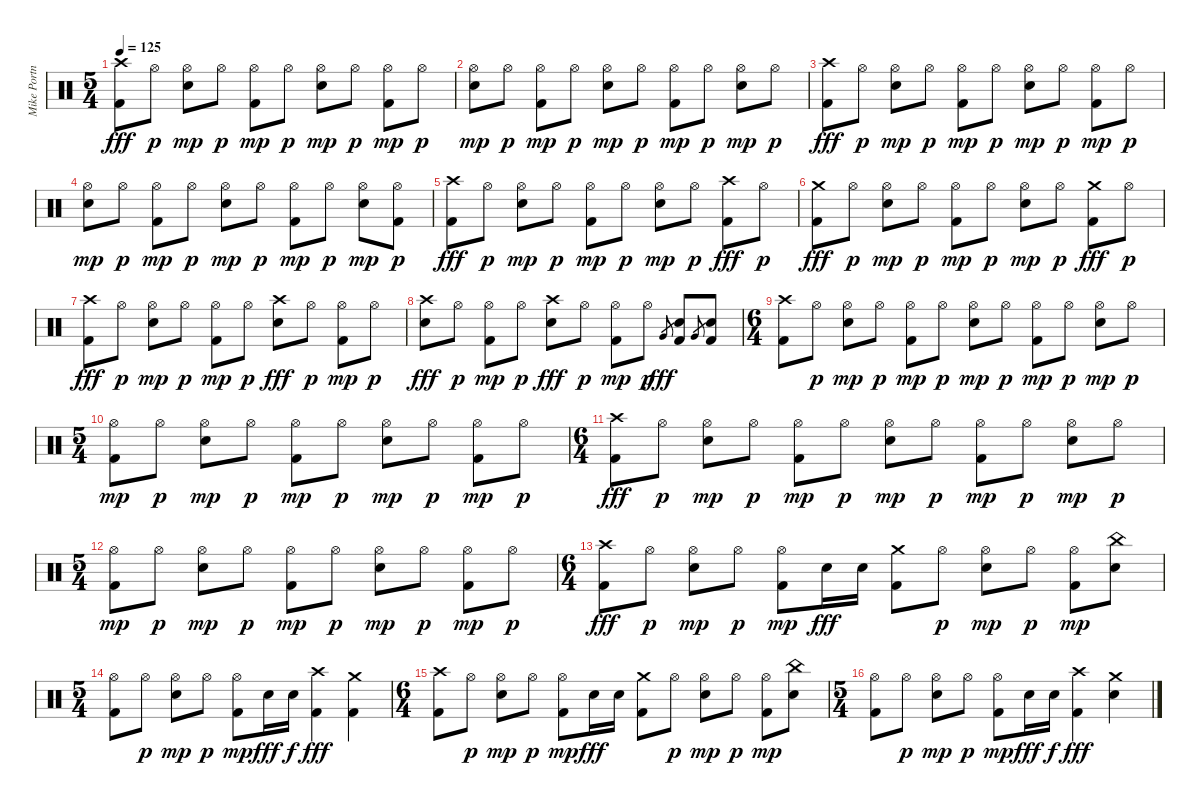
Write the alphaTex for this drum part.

\track ("Mike Portnoy" "Mike Portn") {instrument percussion}
\staff {score}
\articulation defaults
\ts (5 4)
\tempo 125
\clef neutral
\ks c
("Kick (hit) 2" "Crash high (hit)").8{dy fff} "Hi-Hat (open)".8{dy p} ("Electric Snare (hit)" "Hi-Hat (open)").8{dy mp} "Hi-Hat (open)".8{dy p} ("Kick (hit) 2" "Hi-Hat (open)").8{dy mp} "Hi-Hat (open)".8{dy p} ("Electric Snare (hit)" "Hi-Hat (open)").8{dy mp} "Hi-Hat (open)".8{dy p} ("Kick (hit) 2" "Hi-Hat (open)").8{dy mp} "Hi-Hat (open)".8{dy p} |
("Electric Snare (hit)" "Hi-Hat (open)").8{dy mp} "Hi-Hat (open)".8{dy p} ("Kick (hit) 2" "Hi-Hat (open)").8{dy mp} "Hi-Hat (open)".8{dy p} ("Electric Snare (hit)" "Hi-Hat (open)").8{dy mp} "Hi-Hat (open)".8{dy p} ("Kick (hit) 2" "Hi-Hat (open)").8{dy mp} "Hi-Hat (open)".8{dy p} ("Electric Snare (hit)" "Hi-Hat (open)").8{dy mp} "Hi-Hat (open)".8{dy p} |
("Kick (hit) 2" "Crash high (hit)").8{dy fff} "Hi-Hat (open)".8{dy p} ("Electric Snare (hit)" "Hi-Hat (open)").8{dy mp} "Hi-Hat (open)".8{dy p} ("Kick (hit) 2" "Hi-Hat (open)").8{dy mp} "Hi-Hat (open)".8{dy p} ("Electric Snare (hit)" "Hi-Hat (open)").8{dy mp} "Hi-Hat (open)".8{dy p} ("Kick (hit) 2" "Hi-Hat (open)").8{dy mp} "Hi-Hat (open)".8{dy p} |
("Electric Snare (hit)" "Hi-Hat (open)").8{dy mp} "Hi-Hat (open)".8{dy p} ("Kick (hit) 2" "Hi-Hat (open)").8{dy mp} "Hi-Hat (open)".8{dy p} ("Electric Snare (hit)" "Hi-Hat (open)").8{dy mp} "Hi-Hat (open)".8{dy p} ("Kick (hit) 2" "Hi-Hat (open)").8{dy mp} "Hi-Hat (open)".8{dy p} ("Electric Snare (hit)" "Hi-Hat (open)").8{dy mp} ("Kick (hit) 2" "Hi-Hat (open)").8{dy p} |
("Kick (hit) 2" "Crash high (hit)").8{dy fff} "Hi-Hat (open)".8{dy p} ("Electric Snare (hit)" "Hi-Hat (open)").8{dy mp} "Hi-Hat (open)".8{dy p} ("Kick (hit) 2" "Hi-Hat (open)").8{dy mp} "Hi-Hat (open)".8{dy p} ("Electric Snare (hit)" "Hi-Hat (open)").8{dy mp} "Hi-Hat (open)".8{dy p} ("Kick (hit) 2" "Crash high (hit)").8{dy fff} "Hi-Hat (open)".8{dy p} |
("Kick (hit) 2" "Crash medium (hit)").8{dy fff} "Hi-Hat (open)".8{dy p} ("Electric Snare (hit)" "Hi-Hat (open)").8{dy mp} "Hi-Hat (open)".8{dy p} ("Kick (hit) 2" "Hi-Hat (open)").8{dy mp} "Hi-Hat (open)".8{dy p} ("Electric Snare (hit)" "Hi-Hat (open)").8{dy mp} "Hi-Hat (open)".8{dy p} ("Kick (hit) 2" "Crash medium (hit)").8{dy fff} "Hi-Hat (open)".8{dy p} |
("Kick (hit) 2" "Crash high (hit)").8{dy fff} "Hi-Hat (open)".8{dy p} ("Electric Snare (hit)" "Hi-Hat (open)").8{dy mp} "Hi-Hat (open)".8{dy p} ("Kick (hit) 2" "Hi-Hat (open)").8{dy mp} "Hi-Hat (open)".8{dy p} ("Electric Snare (hit)" "Crash high (hit)").8{dy fff} "Hi-Hat (open)".8{dy p} ("Kick (hit) 2" "Hi-Hat (open)").8{dy mp} "Hi-Hat (open)".8{dy p} |
("Electric Snare (hit)" "Crash high (hit)").8{dy fff} "Hi-Hat (open)".8{dy p} ("Kick (hit) 2" "Hi-Hat (open)").8{dy mp} "Hi-Hat (open)".8{dy p} ("Electric Snare (hit)" "Crash high (hit)").8{dy fff} "Hi-Hat (open)".8{dy p} ("Kick (hit) 2" "Hi-Hat (open)").8{dy mp} "Hi-Hat (open)".8{dy p} "Very Low Tom (hit)".8{gr dy fff} ("Electric Snare (hit)" "Kick (hit) 2").8 "Very Low Tom (hit)".8{gr} ("Electric Snare (hit)" "Kick (hit) 2").8 |
\ts (6 4)
("Kick (hit) 2" "Crash high (hit)").8 "Hi-Hat (open)".8{dy p} ("Electric Snare (hit)" "Hi-Hat (open)").8{dy mp} "Hi-Hat (open)".8{dy p} ("Kick (hit) 2" "Hi-Hat (open)").8{dy mp} "Hi-Hat (open)".8{dy p} ("Electric Snare (hit)" "Hi-Hat (open)").8{dy mp} "Hi-Hat (open)".8{dy p} ("Kick (hit) 2" "Hi-Hat (open)").8{dy mp} "Hi-Hat (open)".8{dy p} ("Electric Snare (hit)" "Hi-Hat (open)").8{dy mp} "Hi-Hat (open)".8{dy p} |
\ts (5 4)
("Kick (hit) 2" "Hi-Hat (open)").8{dy mp} "Hi-Hat (open)".8{dy p} ("Electric Snare (hit)" "Hi-Hat (open)").8{dy mp} "Hi-Hat (open)".8{dy p} ("Kick (hit) 2" "Hi-Hat (open)").8{dy mp} "Hi-Hat (open)".8{dy p} ("Electric Snare (hit)" "Hi-Hat (open)").8{dy mp} "Hi-Hat (open)".8{dy p} ("Kick (hit) 2" "Hi-Hat (open)").8{dy mp} "Hi-Hat (open)".8{dy p} |
\ts (6 4)
("Kick (hit) 2" "Crash high (hit)").8{dy fff} "Hi-Hat (open)".8{dy p} ("Electric Snare (hit)" "Hi-Hat (open)").8{dy mp} "Hi-Hat (open)".8{dy p} ("Kick (hit) 2" "Hi-Hat (open)").8{dy mp} "Hi-Hat (open)".8{dy p} ("Electric Snare (hit)" "Hi-Hat (open)").8{dy mp} "Hi-Hat (open)".8{dy p} ("Kick (hit) 2" "Hi-Hat (open)").8{dy mp} "Hi-Hat (open)".8{dy p} ("Electric Snare (hit)" "Hi-Hat (open)").8{dy mp} "Hi-Hat (open)".8{dy p} |
\ts (5 4)
("Kick (hit) 2" "Hi-Hat (open)").8{dy mp} "Hi-Hat (open)".8{dy p} ("Electric Snare (hit)" "Hi-Hat (open)").8{dy mp} "Hi-Hat (open)".8{dy p} ("Kick (hit) 2" "Hi-Hat (open)").8{dy mp} "Hi-Hat (open)".8{dy p} ("Electric Snare (hit)" "Hi-Hat (open)").8{dy mp} "Hi-Hat (open)".8{dy p} ("Kick (hit) 2" "Hi-Hat (open)").8{dy mp} "Hi-Hat (open)".8{dy p} |
\ts (6 4)
("Kick (hit) 2" "Crash high (hit)").8{dy fff} "Hi-Hat (open)".8{dy p} ("Electric Snare (hit)" "Hi-Hat (open)").8{dy mp} "Hi-Hat (open)".8{dy p} ("Kick (hit) 2" "Hi-Hat (open)").8{dy mp} "Electric Snare (hit)".16{dy fff} "Electric Snare (hit)".16 ("Kick (hit) 2" "Crash medium (hit)").8 "Hi-Hat (open)".8{dy p} ("Electric Snare (hit)" "Hi-Hat (open)").8{dy mp} "Hi-Hat (open)".8{dy p} ("Kick (hit) 2" "Hi-Hat (open)").8{dy mp} ("Electric Snare (hit)" "China (hit)").8 |
\ts (5 4)
("Kick (hit) 2" "Hi-Hat (open)").8 "Hi-Hat (open)".8{dy p} ("Electric Snare (hit)" "Hi-Hat (open)").8{dy mp} "Hi-Hat (open)".8{dy p} ("Kick (hit) 2" "Hi-Hat (open)").8{dy mp} "Electric Snare (hit)".16{dy fff} "Electric Snare (hit)".16{dy f} ("Kick (hit) 2" "Crash high (hit)").4{dy fff} ("Kick (hit) 2" "Crash medium (hit)").4 |
\ts (6 4)
("Kick (hit) 2" "Crash high (hit)").8 "Hi-Hat (open)".8{dy p} ("Electric Snare (hit)" "Hi-Hat (open)").8{dy mp} "Hi-Hat (open)".8{dy p} ("Kick (hit) 2" "Hi-Hat (open)").8{dy mp} "Electric Snare (hit)".16{dy fff} "Electric Snare (hit)".16 ("Kick (hit) 2" "Crash medium (hit)").8 "Hi-Hat (open)".8{dy p} ("Electric Snare (hit)" "Hi-Hat (open)").8{dy mp} "Hi-Hat (open)".8{dy p} ("Kick (hit) 2" "Hi-Hat (open)").8{dy mp} ("Electric Snare (hit)" "China (hit)").8 |
\ts (5 4)
("Kick (hit) 2" "Hi-Hat (open)").8 "Hi-Hat (open)".8{dy p} ("Electric Snare (hit)" "Hi-Hat (open)").8{dy mp} "Hi-Hat (open)".8{dy p} ("Kick (hit) 2" "Hi-Hat (open)").8{dy mp} "Electric Snare (hit)".16{dy fff} "Electric Snare (hit)".16{dy f} ("Kick (hit) 2" "Crash high (hit)").4{dy fff} ("Electric Snare (hit)" "Crash medium (hit)").4
